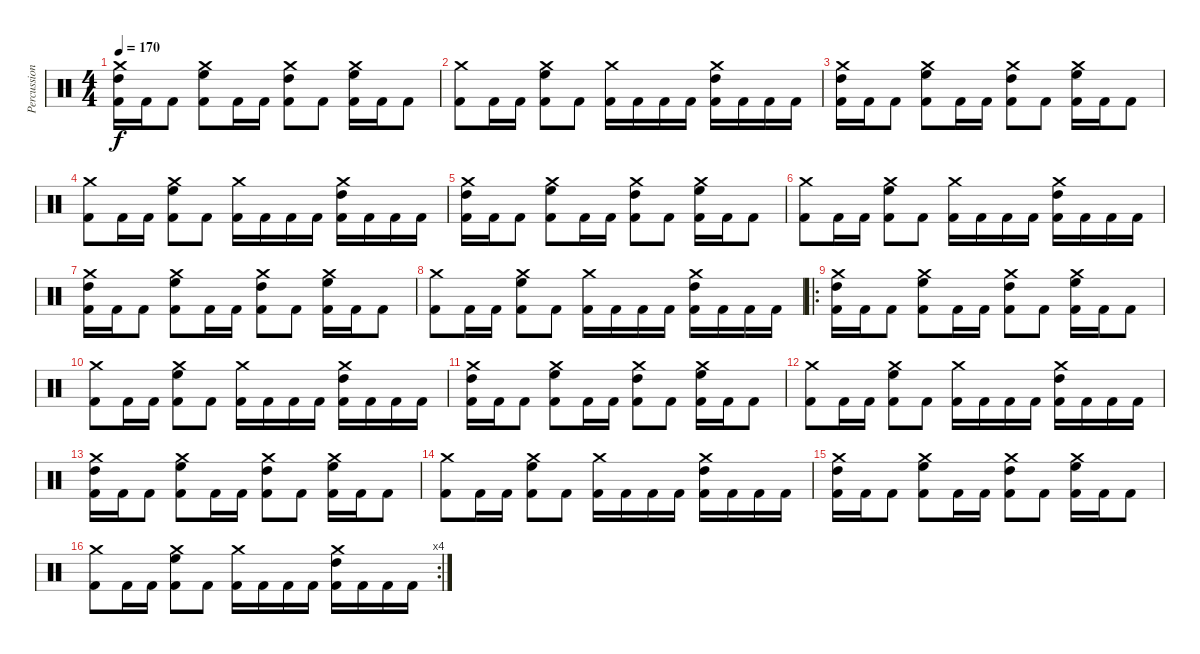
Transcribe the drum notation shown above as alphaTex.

\track ("Percussion" "Percussion") {instrument percussion}
\staff {score}
\articulation defaults
\ts (4 4)
\tempo 170
\clef neutral
\ks c
("Crash medium (hit)" "High Tom (hit)" "Kick (hit) 2").16{dy f} "Kick (hit) 2".16 "Kick (hit) 2".8 ("Crash medium (hit)" "High Floor Tom (hit)" "Kick (hit) 2").8 "Kick (hit) 2".16 "Kick (hit) 2".16 ("Crash medium (hit)" "High Tom (hit)" "Kick (hit) 2").8 "Kick (hit) 2".8 ("Crash medium (hit)" "High Floor Tom (hit)" "Kick (hit) 2").16 "Kick (hit) 2".16 "Kick (hit) 2".8 |
("Crash medium (hit)" "Kick (hit) 2").8 "Kick (hit) 2".16 "Kick (hit) 2".16 ("Crash medium (hit)" "High Floor Tom (hit)" "Kick (hit) 2").8 "Kick (hit) 2".8 ("Crash medium (hit)" "Kick (hit) 2").16 "Kick (hit) 2".16 "Kick (hit) 2".16 "Kick (hit) 2".16 ("Crash medium (hit)" "High Tom (hit)" "Kick (hit) 2").16 "Kick (hit) 2".16 "Kick (hit) 2".16 "Kick (hit) 2".16 |
("Crash medium (hit)" "High Tom (hit)" "Kick (hit) 2").16 "Kick (hit) 2".16 "Kick (hit) 2".8 ("Crash medium (hit)" "High Floor Tom (hit)" "Kick (hit) 2").8 "Kick (hit) 2".16 "Kick (hit) 2".16 ("Crash medium (hit)" "High Tom (hit)" "Kick (hit) 2").8 "Kick (hit) 2".8 ("Crash medium (hit)" "High Floor Tom (hit)" "Kick (hit) 2").16 "Kick (hit) 2".16 "Kick (hit) 2".8 |
("Crash medium (hit)" "Kick (hit) 2").8 "Kick (hit) 2".16 "Kick (hit) 2".16 ("Crash medium (hit)" "High Floor Tom (hit)" "Kick (hit) 2").8 "Kick (hit) 2".8 ("Crash medium (hit)" "Kick (hit) 2").16 "Kick (hit) 2".16 "Kick (hit) 2".16 "Kick (hit) 2".16 ("Crash medium (hit)" "High Tom (hit)" "Kick (hit) 2").16 "Kick (hit) 2".16 "Kick (hit) 2".16 "Kick (hit) 2".16 |
("Crash medium (hit)" "High Tom (hit)" "Kick (hit) 2").16 "Kick (hit) 2".16 "Kick (hit) 2".8 ("Crash medium (hit)" "High Floor Tom (hit)" "Kick (hit) 2").8 "Kick (hit) 2".16 "Kick (hit) 2".16 ("Crash medium (hit)" "High Tom (hit)" "Kick (hit) 2").8 "Kick (hit) 2".8 ("Crash medium (hit)" "High Floor Tom (hit)" "Kick (hit) 2").16 "Kick (hit) 2".16 "Kick (hit) 2".8 |
("Crash medium (hit)" "Kick (hit) 2").8 "Kick (hit) 2".16 "Kick (hit) 2".16 ("Crash medium (hit)" "High Floor Tom (hit)" "Kick (hit) 2").8 "Kick (hit) 2".8 ("Crash medium (hit)" "Kick (hit) 2").16 "Kick (hit) 2".16 "Kick (hit) 2".16 "Kick (hit) 2".16 ("Crash medium (hit)" "High Tom (hit)" "Kick (hit) 2").16 "Kick (hit) 2".16 "Kick (hit) 2".16 "Kick (hit) 2".16 |
("Crash medium (hit)" "High Tom (hit)" "Kick (hit) 2").16 "Kick (hit) 2".16 "Kick (hit) 2".8 ("Crash medium (hit)" "High Floor Tom (hit)" "Kick (hit) 2").8 "Kick (hit) 2".16 "Kick (hit) 2".16 ("Crash medium (hit)" "High Tom (hit)" "Kick (hit) 2").8 "Kick (hit) 2".8 ("Crash medium (hit)" "High Floor Tom (hit)" "Kick (hit) 2").16 "Kick (hit) 2".16 "Kick (hit) 2".8 |
("Crash medium (hit)" "Kick (hit) 2").8 "Kick (hit) 2".16 "Kick (hit) 2".16 ("Crash medium (hit)" "High Floor Tom (hit)" "Kick (hit) 2").8 "Kick (hit) 2".8 ("Crash medium (hit)" "Kick (hit) 2").16 "Kick (hit) 2".16 "Kick (hit) 2".16 "Kick (hit) 2".16 ("Crash medium (hit)" "High Tom (hit)" "Kick (hit) 2").16 "Kick (hit) 2".16 "Kick (hit) 2".16 "Kick (hit) 2".16 |
\ro
("Crash medium (hit)" "High Tom (hit)" "Kick (hit) 2").16 "Kick (hit) 2".16 "Kick (hit) 2".8 ("Crash medium (hit)" "High Floor Tom (hit)" "Kick (hit) 2").8 "Kick (hit) 2".16 "Kick (hit) 2".16 ("Crash medium (hit)" "High Tom (hit)" "Kick (hit) 2").8 "Kick (hit) 2".8 ("Crash medium (hit)" "High Floor Tom (hit)" "Kick (hit) 2").16 "Kick (hit) 2".16 "Kick (hit) 2".8 |
("Crash medium (hit)" "Kick (hit) 2").8 "Kick (hit) 2".16 "Kick (hit) 2".16 ("Crash medium (hit)" "High Floor Tom (hit)" "Kick (hit) 2").8 "Kick (hit) 2".8 ("Crash medium (hit)" "Kick (hit) 2").16 "Kick (hit) 2".16 "Kick (hit) 2".16 "Kick (hit) 2".16 ("Crash medium (hit)" "High Tom (hit)" "Kick (hit) 2").16 "Kick (hit) 2".16 "Kick (hit) 2".16 "Kick (hit) 2".16 |
("Crash medium (hit)" "High Tom (hit)" "Kick (hit) 2").16 "Kick (hit) 2".16 "Kick (hit) 2".8 ("Crash medium (hit)" "High Floor Tom (hit)" "Kick (hit) 2").8 "Kick (hit) 2".16 "Kick (hit) 2".16 ("Crash medium (hit)" "High Tom (hit)" "Kick (hit) 2").8 "Kick (hit) 2".8 ("Crash medium (hit)" "High Floor Tom (hit)" "Kick (hit) 2").16 "Kick (hit) 2".16 "Kick (hit) 2".8 |
("Crash medium (hit)" "Kick (hit) 2").8 "Kick (hit) 2".16 "Kick (hit) 2".16 ("Crash medium (hit)" "High Floor Tom (hit)" "Kick (hit) 2").8 "Kick (hit) 2".8 ("Crash medium (hit)" "Kick (hit) 2").16 "Kick (hit) 2".16 "Kick (hit) 2".16 "Kick (hit) 2".16 ("Crash medium (hit)" "High Tom (hit)" "Kick (hit) 2").16 "Kick (hit) 2".16 "Kick (hit) 2".16 "Kick (hit) 2".16 |
("Crash medium (hit)" "High Tom (hit)" "Kick (hit) 2").16 "Kick (hit) 2".16 "Kick (hit) 2".8 ("Crash medium (hit)" "High Floor Tom (hit)" "Kick (hit) 2").8 "Kick (hit) 2".16 "Kick (hit) 2".16 ("Crash medium (hit)" "High Tom (hit)" "Kick (hit) 2").8 "Kick (hit) 2".8 ("Crash medium (hit)" "High Floor Tom (hit)" "Kick (hit) 2").16 "Kick (hit) 2".16 "Kick (hit) 2".8 |
("Crash medium (hit)" "Kick (hit) 2").8 "Kick (hit) 2".16 "Kick (hit) 2".16 ("Crash medium (hit)" "High Floor Tom (hit)" "Kick (hit) 2").8 "Kick (hit) 2".8 ("Crash medium (hit)" "Kick (hit) 2").16 "Kick (hit) 2".16 "Kick (hit) 2".16 "Kick (hit) 2".16 ("Crash medium (hit)" "High Tom (hit)" "Kick (hit) 2").16 "Kick (hit) 2".16 "Kick (hit) 2".16 "Kick (hit) 2".16 |
("Crash medium (hit)" "High Tom (hit)" "Kick (hit) 2").16 "Kick (hit) 2".16 "Kick (hit) 2".8 ("Crash medium (hit)" "High Floor Tom (hit)" "Kick (hit) 2").8 "Kick (hit) 2".16 "Kick (hit) 2".16 ("Crash medium (hit)" "High Tom (hit)" "Kick (hit) 2").8 "Kick (hit) 2".8 ("Crash medium (hit)" "High Floor Tom (hit)" "Kick (hit) 2").16 "Kick (hit) 2".16 "Kick (hit) 2".8 |
\rc 4
("Crash medium (hit)" "Kick (hit) 2").8 "Kick (hit) 2".16 "Kick (hit) 2".16 ("Crash medium (hit)" "High Floor Tom (hit)" "Kick (hit) 2").8 "Kick (hit) 2".8 ("Crash medium (hit)" "Kick (hit) 2").16 "Kick (hit) 2".16 "Kick (hit) 2".16 "Kick (hit) 2".16 ("Crash medium (hit)" "High Tom (hit)" "Kick (hit) 2").16 "Kick (hit) 2".16 "Kick (hit) 2".16 "Kick (hit) 2".16
